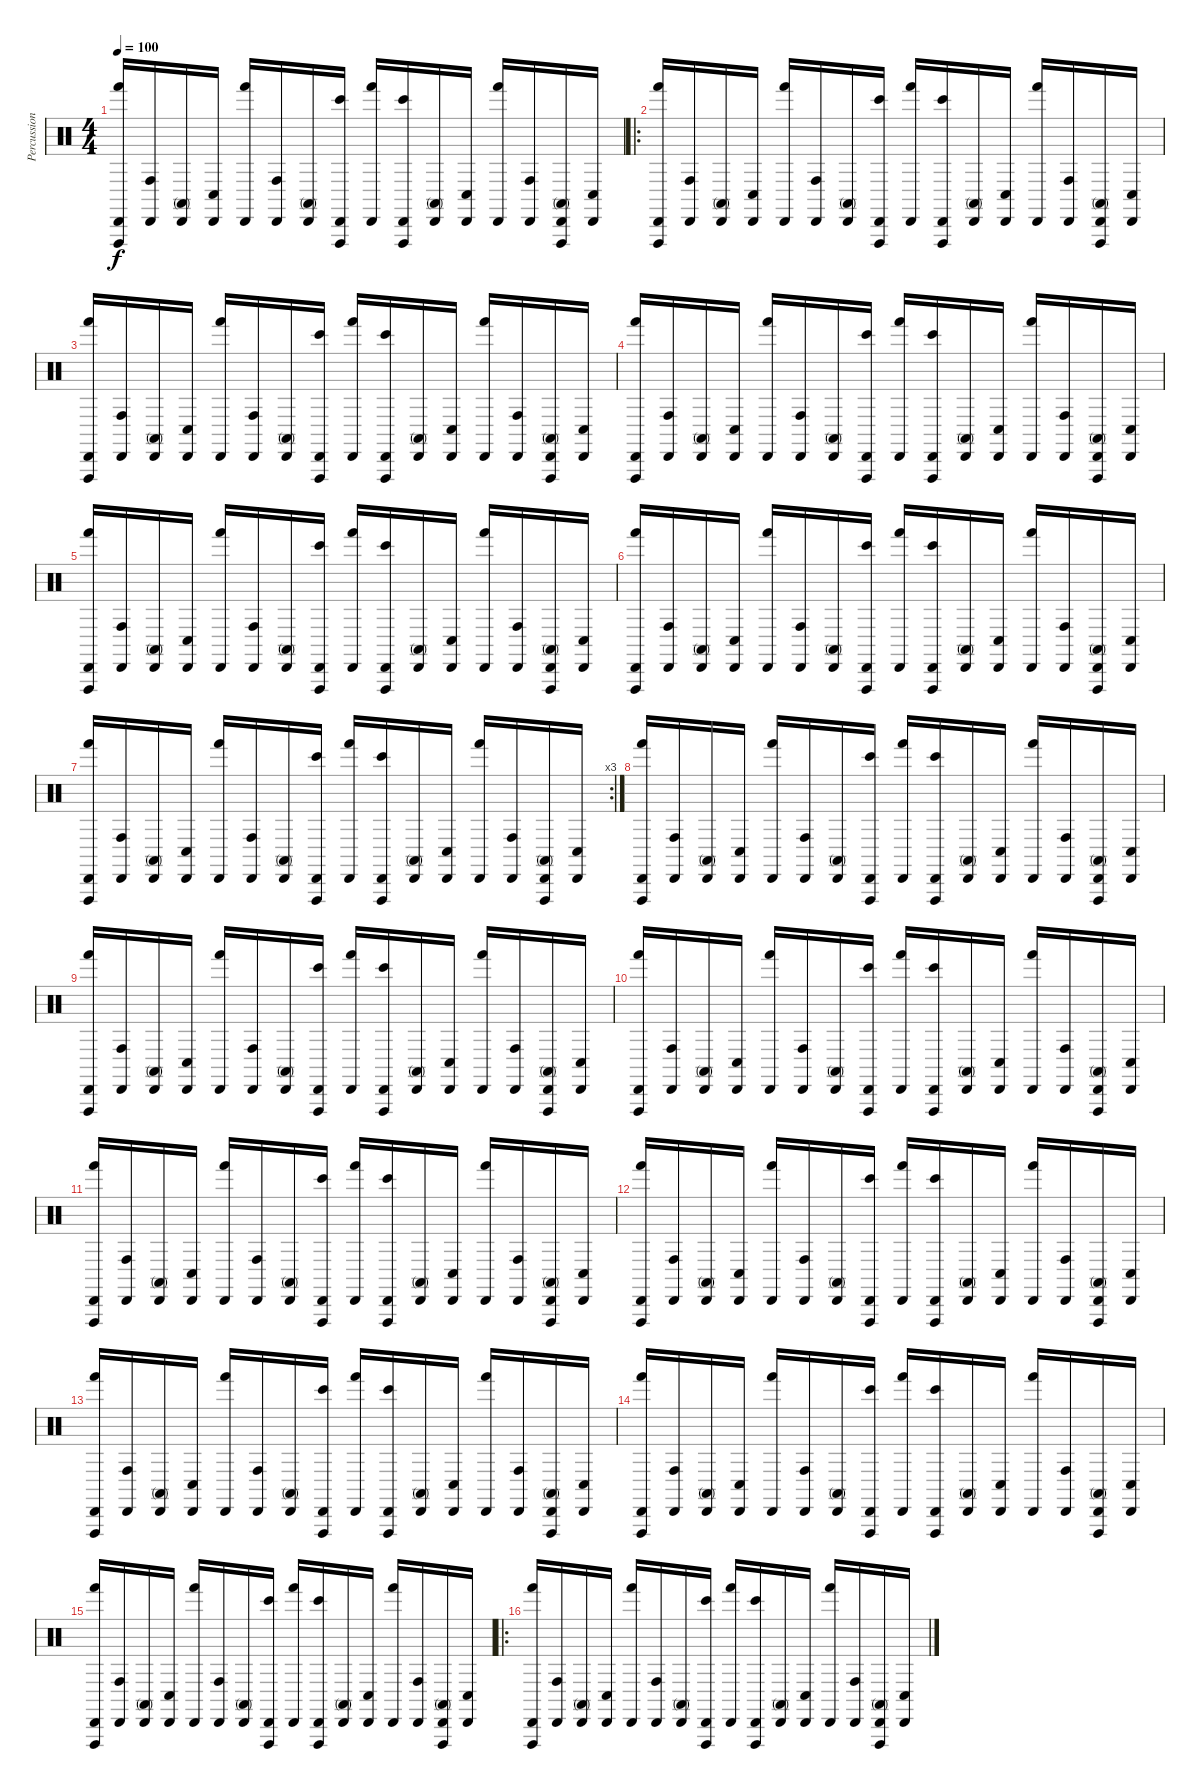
\track ("Percussion" "Percussion") {instrument percussion}
\staff {score}
\articulation defaults
\ts (4 4)
\tempo 100
\clef neutral
\ks c
("Cabasa (hit)" "Vibraslap (hit)" "Hand (hit)").16{dy f} ("Cabasa (hit)" "Conga high (hit)").16 ("Cabasa (hit)" "Conga high (mute)").16 ("Cabasa (hit)" "Conga low (hit)").16 ("Cabasa (hit)" "Hand (hit)").16 ("Cabasa (hit)" "Conga high (hit)").16 ("Cabasa (hit)" "Conga high (mute)").16 ("Cabasa (hit)" "Vibraslap (hit)" "Bongo High (hit)").16 ("Cabasa (hit)" "Hand (hit)").16 ("Cabasa (hit)" "Vibraslap (hit)" "Bongo High (hit)").16 ("Cabasa (hit)" "Conga high (mute)").16 ("Cabasa (hit)" "Conga low (hit)").16 ("Cabasa (hit)" "Hand (hit)").16 ("Cabasa (hit)" "Conga high (hit)").16 ("Cabasa (hit)" "Vibraslap (hit)" "Conga high (mute)").16 ("Cabasa (hit)" "Conga low (hit)").16 |
\ro
("Cabasa (hit)" "Vibraslap (hit)" "Hand (hit)").16 ("Cabasa (hit)" "Conga high (hit)").16 ("Cabasa (hit)" "Conga high (mute)").16 ("Cabasa (hit)" "Conga low (hit)").16 ("Cabasa (hit)" "Hand (hit)").16 ("Cabasa (hit)" "Conga high (hit)").16 ("Cabasa (hit)" "Conga high (mute)").16 ("Cabasa (hit)" "Vibraslap (hit)" "Bongo High (hit)").16 ("Cabasa (hit)" "Hand (hit)").16 ("Cabasa (hit)" "Vibraslap (hit)" "Bongo High (hit)").16 ("Cabasa (hit)" "Conga high (mute)").16 ("Cabasa (hit)" "Conga low (hit)").16 ("Cabasa (hit)" "Hand (hit)").16 ("Cabasa (hit)" "Conga high (hit)").16 ("Cabasa (hit)" "Vibraslap (hit)" "Conga high (mute)").16 ("Cabasa (hit)" "Conga low (hit)").16 |
("Cabasa (hit)" "Vibraslap (hit)" "Hand (hit)").16 ("Cabasa (hit)" "Conga high (hit)").16 ("Cabasa (hit)" "Conga high (mute)").16 ("Cabasa (hit)" "Conga low (hit)").16 ("Cabasa (hit)" "Hand (hit)").16 ("Cabasa (hit)" "Conga high (hit)").16 ("Cabasa (hit)" "Conga high (mute)").16 ("Cabasa (hit)" "Vibraslap (hit)" "Bongo High (hit)").16 ("Cabasa (hit)" "Hand (hit)").16 ("Cabasa (hit)" "Vibraslap (hit)" "Bongo High (hit)").16 ("Cabasa (hit)" "Conga high (mute)").16 ("Cabasa (hit)" "Conga low (hit)").16 ("Cabasa (hit)" "Hand (hit)").16 ("Cabasa (hit)" "Conga high (hit)").16 ("Cabasa (hit)" "Vibraslap (hit)" "Conga high (mute)").16 ("Cabasa (hit)" "Conga low (hit)").16 |
("Cabasa (hit)" "Vibraslap (hit)" "Hand (hit)").16 ("Cabasa (hit)" "Conga high (hit)").16 ("Cabasa (hit)" "Conga high (mute)").16 ("Cabasa (hit)" "Conga low (hit)").16 ("Cabasa (hit)" "Hand (hit)").16 ("Cabasa (hit)" "Conga high (hit)").16 ("Cabasa (hit)" "Conga high (mute)").16 ("Cabasa (hit)" "Vibraslap (hit)" "Bongo High (hit)").16 ("Cabasa (hit)" "Hand (hit)").16 ("Cabasa (hit)" "Vibraslap (hit)" "Bongo High (hit)").16 ("Cabasa (hit)" "Conga high (mute)").16 ("Cabasa (hit)" "Conga low (hit)").16 ("Cabasa (hit)" "Hand (hit)").16 ("Cabasa (hit)" "Conga high (hit)").16 ("Cabasa (hit)" "Vibraslap (hit)" "Conga high (mute)").16 ("Cabasa (hit)" "Conga low (hit)").16 |
("Cabasa (hit)" "Vibraslap (hit)" "Hand (hit)").16 ("Cabasa (hit)" "Conga high (hit)").16 ("Cabasa (hit)" "Conga high (mute)").16 ("Cabasa (hit)" "Conga low (hit)").16 ("Cabasa (hit)" "Hand (hit)").16 ("Cabasa (hit)" "Conga high (hit)").16 ("Cabasa (hit)" "Conga high (mute)").16 ("Cabasa (hit)" "Vibraslap (hit)" "Bongo High (hit)").16 ("Cabasa (hit)" "Hand (hit)").16 ("Cabasa (hit)" "Vibraslap (hit)" "Bongo High (hit)").16 ("Cabasa (hit)" "Conga high (mute)").16 ("Cabasa (hit)" "Conga low (hit)").16 ("Cabasa (hit)" "Hand (hit)").16 ("Cabasa (hit)" "Conga high (hit)").16 ("Cabasa (hit)" "Vibraslap (hit)" "Conga high (mute)").16 ("Cabasa (hit)" "Conga low (hit)").16 |
("Cabasa (hit)" "Vibraslap (hit)" "Hand (hit)").16 ("Cabasa (hit)" "Conga high (hit)").16 ("Cabasa (hit)" "Conga high (mute)").16 ("Cabasa (hit)" "Conga low (hit)").16 ("Cabasa (hit)" "Hand (hit)").16 ("Cabasa (hit)" "Conga high (hit)").16 ("Cabasa (hit)" "Conga high (mute)").16 ("Cabasa (hit)" "Vibraslap (hit)" "Bongo High (hit)").16 ("Cabasa (hit)" "Hand (hit)").16 ("Cabasa (hit)" "Vibraslap (hit)" "Bongo High (hit)").16 ("Cabasa (hit)" "Conga high (mute)").16 ("Cabasa (hit)" "Conga low (hit)").16 ("Cabasa (hit)" "Hand (hit)").16 ("Cabasa (hit)" "Conga high (hit)").16 ("Cabasa (hit)" "Vibraslap (hit)" "Conga high (mute)").16 ("Cabasa (hit)" "Conga low (hit)").16 |
\rc 3
("Cabasa (hit)" "Vibraslap (hit)" "Hand (hit)").16 ("Cabasa (hit)" "Conga high (hit)").16 ("Cabasa (hit)" "Conga high (mute)").16 ("Cabasa (hit)" "Conga low (hit)").16 ("Cabasa (hit)" "Hand (hit)").16 ("Cabasa (hit)" "Conga high (hit)").16 ("Cabasa (hit)" "Conga high (mute)").16 ("Cabasa (hit)" "Vibraslap (hit)" "Bongo High (hit)").16 ("Cabasa (hit)" "Hand (hit)").16 ("Cabasa (hit)" "Vibraslap (hit)" "Bongo High (hit)").16 ("Cabasa (hit)" "Conga high (mute)").16 ("Cabasa (hit)" "Conga low (hit)").16 ("Cabasa (hit)" "Hand (hit)").16 ("Cabasa (hit)" "Conga high (hit)").16 ("Cabasa (hit)" "Vibraslap (hit)" "Conga high (mute)").16 ("Cabasa (hit)" "Conga low (hit)").16 |
("Cabasa (hit)" "Vibraslap (hit)" "Hand (hit)").16 ("Cabasa (hit)" "Conga high (hit)").16 ("Cabasa (hit)" "Conga high (mute)").16 ("Cabasa (hit)" "Conga low (hit)").16 ("Cabasa (hit)" "Hand (hit)").16 ("Cabasa (hit)" "Conga high (hit)").16 ("Cabasa (hit)" "Conga high (mute)").16 ("Cabasa (hit)" "Vibraslap (hit)" "Bongo High (hit)").16 ("Cabasa (hit)" "Hand (hit)").16 ("Cabasa (hit)" "Vibraslap (hit)" "Bongo High (hit)").16 ("Cabasa (hit)" "Conga high (mute)").16 ("Cabasa (hit)" "Conga low (hit)").16 ("Cabasa (hit)" "Hand (hit)").16 ("Cabasa (hit)" "Conga high (hit)").16 ("Cabasa (hit)" "Vibraslap (hit)" "Conga high (mute)").16 ("Cabasa (hit)" "Conga low (hit)").16 |
("Cabasa (hit)" "Vibraslap (hit)" "Hand (hit)").16 ("Cabasa (hit)" "Conga high (hit)").16 ("Cabasa (hit)" "Conga high (mute)").16 ("Cabasa (hit)" "Conga low (hit)").16 ("Cabasa (hit)" "Hand (hit)").16 ("Cabasa (hit)" "Conga high (hit)").16 ("Cabasa (hit)" "Conga high (mute)").16 ("Cabasa (hit)" "Vibraslap (hit)" "Bongo High (hit)").16 ("Cabasa (hit)" "Hand (hit)").16 ("Cabasa (hit)" "Vibraslap (hit)" "Bongo High (hit)").16 ("Cabasa (hit)" "Conga high (mute)").16 ("Cabasa (hit)" "Conga low (hit)").16 ("Cabasa (hit)" "Hand (hit)").16 ("Cabasa (hit)" "Conga high (hit)").16 ("Cabasa (hit)" "Vibraslap (hit)" "Conga high (mute)").16 ("Cabasa (hit)" "Conga low (hit)").16 |
("Cabasa (hit)" "Vibraslap (hit)" "Hand (hit)").16 ("Cabasa (hit)" "Conga high (hit)").16 ("Cabasa (hit)" "Conga high (mute)").16 ("Cabasa (hit)" "Conga low (hit)").16 ("Cabasa (hit)" "Hand (hit)").16 ("Cabasa (hit)" "Conga high (hit)").16 ("Cabasa (hit)" "Conga high (mute)").16 ("Cabasa (hit)" "Vibraslap (hit)" "Bongo High (hit)").16 ("Cabasa (hit)" "Hand (hit)").16 ("Cabasa (hit)" "Vibraslap (hit)" "Bongo High (hit)").16 ("Cabasa (hit)" "Conga high (mute)").16 ("Cabasa (hit)" "Conga low (hit)").16 ("Cabasa (hit)" "Hand (hit)").16 ("Cabasa (hit)" "Conga high (hit)").16 ("Cabasa (hit)" "Vibraslap (hit)" "Conga high (mute)").16 ("Cabasa (hit)" "Conga low (hit)").16 |
("Cabasa (hit)" "Vibraslap (hit)" "Hand (hit)").16 ("Cabasa (hit)" "Conga high (hit)").16 ("Cabasa (hit)" "Conga high (mute)").16 ("Cabasa (hit)" "Conga low (hit)").16 ("Cabasa (hit)" "Hand (hit)").16 ("Cabasa (hit)" "Conga high (hit)").16 ("Cabasa (hit)" "Conga high (mute)").16 ("Cabasa (hit)" "Vibraslap (hit)" "Bongo High (hit)").16 ("Cabasa (hit)" "Hand (hit)").16 ("Cabasa (hit)" "Vibraslap (hit)" "Bongo High (hit)").16 ("Cabasa (hit)" "Conga high (mute)").16 ("Cabasa (hit)" "Conga low (hit)").16 ("Cabasa (hit)" "Hand (hit)").16 ("Cabasa (hit)" "Conga high (hit)").16 ("Cabasa (hit)" "Vibraslap (hit)" "Conga high (mute)").16 ("Cabasa (hit)" "Conga low (hit)").16 |
("Cabasa (hit)" "Vibraslap (hit)" "Hand (hit)").16 ("Cabasa (hit)" "Conga high (hit)").16 ("Cabasa (hit)" "Conga high (mute)").16 ("Cabasa (hit)" "Conga low (hit)").16 ("Cabasa (hit)" "Hand (hit)").16 ("Cabasa (hit)" "Conga high (hit)").16 ("Cabasa (hit)" "Conga high (mute)").16 ("Cabasa (hit)" "Vibraslap (hit)" "Bongo High (hit)").16 ("Cabasa (hit)" "Hand (hit)").16 ("Cabasa (hit)" "Vibraslap (hit)" "Bongo High (hit)").16 ("Cabasa (hit)" "Conga high (mute)").16 ("Cabasa (hit)" "Conga low (hit)").16 ("Cabasa (hit)" "Hand (hit)").16 ("Cabasa (hit)" "Conga high (hit)").16 ("Cabasa (hit)" "Vibraslap (hit)" "Conga high (mute)").16 ("Cabasa (hit)" "Conga low (hit)").16 |
("Cabasa (hit)" "Vibraslap (hit)" "Hand (hit)").16 ("Cabasa (hit)" "Conga high (hit)").16 ("Cabasa (hit)" "Conga high (mute)").16 ("Cabasa (hit)" "Conga low (hit)").16 ("Cabasa (hit)" "Hand (hit)").16 ("Cabasa (hit)" "Conga high (hit)").16 ("Cabasa (hit)" "Conga high (mute)").16 ("Cabasa (hit)" "Vibraslap (hit)" "Bongo High (hit)").16 ("Cabasa (hit)" "Hand (hit)").16 ("Cabasa (hit)" "Vibraslap (hit)" "Bongo High (hit)").16 ("Cabasa (hit)" "Conga high (mute)").16 ("Cabasa (hit)" "Conga low (hit)").16 ("Cabasa (hit)" "Hand (hit)").16 ("Cabasa (hit)" "Conga high (hit)").16 ("Cabasa (hit)" "Vibraslap (hit)" "Conga high (mute)").16 ("Cabasa (hit)" "Conga low (hit)").16 |
("Cabasa (hit)" "Vibraslap (hit)" "Hand (hit)").16 ("Cabasa (hit)" "Conga high (hit)").16 ("Cabasa (hit)" "Conga high (mute)").16 ("Cabasa (hit)" "Conga low (hit)").16 ("Cabasa (hit)" "Hand (hit)").16 ("Cabasa (hit)" "Conga high (hit)").16 ("Cabasa (hit)" "Conga high (mute)").16 ("Cabasa (hit)" "Vibraslap (hit)" "Bongo High (hit)").16 ("Cabasa (hit)" "Hand (hit)").16 ("Cabasa (hit)" "Vibraslap (hit)" "Bongo High (hit)").16 ("Cabasa (hit)" "Conga high (mute)").16 ("Cabasa (hit)" "Conga low (hit)").16 ("Cabasa (hit)" "Hand (hit)").16 ("Cabasa (hit)" "Conga high (hit)").16 ("Cabasa (hit)" "Vibraslap (hit)" "Conga high (mute)").16 ("Cabasa (hit)" "Conga low (hit)").16 |
("Cabasa (hit)" "Vibraslap (hit)" "Hand (hit)").16 ("Cabasa (hit)" "Conga high (hit)").16 ("Cabasa (hit)" "Conga high (mute)").16 ("Cabasa (hit)" "Conga low (hit)").16 ("Cabasa (hit)" "Hand (hit)").16 ("Cabasa (hit)" "Conga high (hit)").16 ("Cabasa (hit)" "Conga high (mute)").16 ("Cabasa (hit)" "Vibraslap (hit)" "Bongo High (hit)").16 ("Cabasa (hit)" "Hand (hit)").16 ("Cabasa (hit)" "Vibraslap (hit)" "Bongo High (hit)").16 ("Cabasa (hit)" "Conga high (mute)").16 ("Cabasa (hit)" "Conga low (hit)").16 ("Cabasa (hit)" "Hand (hit)").16 ("Cabasa (hit)" "Conga high (hit)").16 ("Cabasa (hit)" "Vibraslap (hit)" "Conga high (mute)").16 ("Cabasa (hit)" "Conga low (hit)").16 |
\ro
("Cabasa (hit)" "Vibraslap (hit)" "Hand (hit)").16 ("Cabasa (hit)" "Conga high (hit)").16 ("Cabasa (hit)" "Conga high (mute)").16 ("Cabasa (hit)" "Conga low (hit)").16 ("Cabasa (hit)" "Hand (hit)").16 ("Cabasa (hit)" "Conga high (hit)").16 ("Cabasa (hit)" "Conga high (mute)").16 ("Cabasa (hit)" "Vibraslap (hit)" "Bongo High (hit)").16 ("Cabasa (hit)" "Hand (hit)").16 ("Cabasa (hit)" "Vibraslap (hit)" "Bongo High (hit)").16 ("Cabasa (hit)" "Conga high (mute)").16 ("Cabasa (hit)" "Conga low (hit)").16 ("Cabasa (hit)" "Hand (hit)").16 ("Cabasa (hit)" "Conga high (hit)").16 ("Cabasa (hit)" "Vibraslap (hit)" "Conga high (mute)").16 ("Cabasa (hit)" "Conga low (hit)").16
